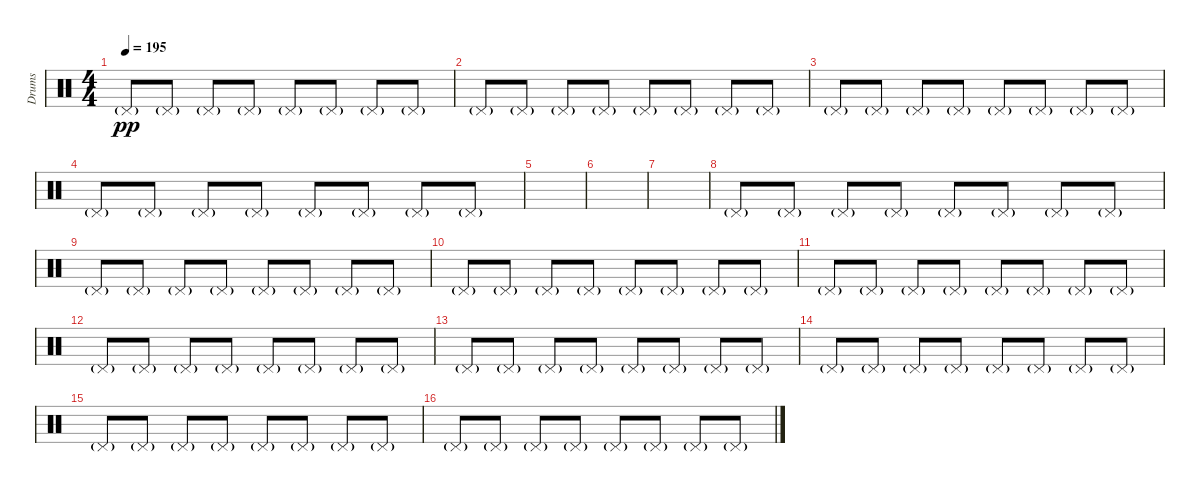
\track ("Drums" "Drums") {instrument percussion}
\staff {score}
\articulation defaults
\ts (4 4)
\tempo 195
\clef neutral
\ks c "Pedal Hi-Hat (hit)"{g}.8{dy pp} "Pedal Hi-Hat (hit)"{g}.8 "Pedal Hi-Hat (hit)"{g}.8 "Pedal Hi-Hat (hit)"{g}.8 "Pedal Hi-Hat (hit)"{g}.8 "Pedal Hi-Hat (hit)"{g}.8 "Pedal Hi-Hat (hit)"{g}.8 "Pedal Hi-Hat (hit)"{g}.8
|
"Pedal Hi-Hat (hit)"{g}.8 "Pedal Hi-Hat (hit)"{g}.8 "Pedal Hi-Hat (hit)"{g}.8 "Pedal Hi-Hat (hit)"{g}.8 "Pedal Hi-Hat (hit)"{g}.8 "Pedal Hi-Hat (hit)"{g}.8 "Pedal Hi-Hat (hit)"{g}.8 "Pedal Hi-Hat (hit)"{g}.8 |
"Pedal Hi-Hat (hit)"{g}.8 "Pedal Hi-Hat (hit)"{g}.8 "Pedal Hi-Hat (hit)"{g}.8 "Pedal Hi-Hat (hit)"{g}.8 "Pedal Hi-Hat (hit)"{g}.8 "Pedal Hi-Hat (hit)"{g}.8 "Pedal Hi-Hat (hit)"{g}.8 "Pedal Hi-Hat (hit)"{g}.8 |
"Pedal Hi-Hat (hit)"{g}.8 "Pedal Hi-Hat (hit)"{g}.8 "Pedal Hi-Hat (hit)"{g}.8 "Pedal Hi-Hat (hit)"{g}.8 "Pedal Hi-Hat (hit)"{g}.8 "Pedal Hi-Hat (hit)"{g}.8 "Pedal Hi-Hat (hit)"{g}.8 "Pedal Hi-Hat (hit)"{g}.8 |
|
|
|
"Pedal Hi-Hat (hit)"{g}.8 "Pedal Hi-Hat (hit)"{g}.8 "Pedal Hi-Hat (hit)"{g}.8 "Pedal Hi-Hat (hit)"{g}.8 "Pedal Hi-Hat (hit)"{g}.8 "Pedal Hi-Hat (hit)"{g}.8 "Pedal Hi-Hat (hit)"{g}.8 "Pedal Hi-Hat (hit)"{g}.8 |
"Pedal Hi-Hat (hit)"{g}.8 "Pedal Hi-Hat (hit)"{g}.8 "Pedal Hi-Hat (hit)"{g}.8 "Pedal Hi-Hat (hit)"{g}.8 "Pedal Hi-Hat (hit)"{g}.8 "Pedal Hi-Hat (hit)"{g}.8 "Pedal Hi-Hat (hit)"{g}.8 "Pedal Hi-Hat (hit)"{g}.8 |
"Pedal Hi-Hat (hit)"{g}.8 "Pedal Hi-Hat (hit)"{g}.8 "Pedal Hi-Hat (hit)"{g}.8 "Pedal Hi-Hat (hit)"{g}.8 "Pedal Hi-Hat (hit)"{g}.8 "Pedal Hi-Hat (hit)"{g}.8 "Pedal Hi-Hat (hit)"{g}.8 "Pedal Hi-Hat (hit)"{g}.8 |
"Pedal Hi-Hat (hit)"{g}.8 "Pedal Hi-Hat (hit)"{g}.8 "Pedal Hi-Hat (hit)"{g}.8 "Pedal Hi-Hat (hit)"{g}.8 "Pedal Hi-Hat (hit)"{g}.8 "Pedal Hi-Hat (hit)"{g}.8 "Pedal Hi-Hat (hit)"{g}.8 "Pedal Hi-Hat (hit)"{g}.8 |
"Pedal Hi-Hat (hit)"{g}.8 "Pedal Hi-Hat (hit)"{g}.8 "Pedal Hi-Hat (hit)"{g}.8 "Pedal Hi-Hat (hit)"{g}.8 "Pedal Hi-Hat (hit)"{g}.8 "Pedal Hi-Hat (hit)"{g}.8 "Pedal Hi-Hat (hit)"{g}.8 "Pedal Hi-Hat (hit)"{g}.8 |
"Pedal Hi-Hat (hit)"{g}.8 "Pedal Hi-Hat (hit)"{g}.8 "Pedal Hi-Hat (hit)"{g}.8 "Pedal Hi-Hat (hit)"{g}.8 "Pedal Hi-Hat (hit)"{g}.8 "Pedal Hi-Hat (hit)"{g}.8 "Pedal Hi-Hat (hit)"{g}.8 "Pedal Hi-Hat (hit)"{g}.8 |
"Pedal Hi-Hat (hit)"{g}.8 "Pedal Hi-Hat (hit)"{g}.8 "Pedal Hi-Hat (hit)"{g}.8 "Pedal Hi-Hat (hit)"{g}.8 "Pedal Hi-Hat (hit)"{g}.8 "Pedal Hi-Hat (hit)"{g}.8 "Pedal Hi-Hat (hit)"{g}.8 "Pedal Hi-Hat (hit)"{g}.8 |
"Pedal Hi-Hat (hit)"{g}.8 "Pedal Hi-Hat (hit)"{g}.8 "Pedal Hi-Hat (hit)"{g}.8 "Pedal Hi-Hat (hit)"{g}.8 "Pedal Hi-Hat (hit)"{g}.8 "Pedal Hi-Hat (hit)"{g}.8 "Pedal Hi-Hat (hit)"{g}.8 "Pedal Hi-Hat (hit)"{g}.8 |
"Pedal Hi-Hat (hit)"{g}.8 "Pedal Hi-Hat (hit)"{g}.8 "Pedal Hi-Hat (hit)"{g}.8 "Pedal Hi-Hat (hit)"{g}.8 "Pedal Hi-Hat (hit)"{g}.8 "Pedal Hi-Hat (hit)"{g}.8 "Pedal Hi-Hat (hit)"{g}.8 "Pedal Hi-Hat (hit)"{g}.8
